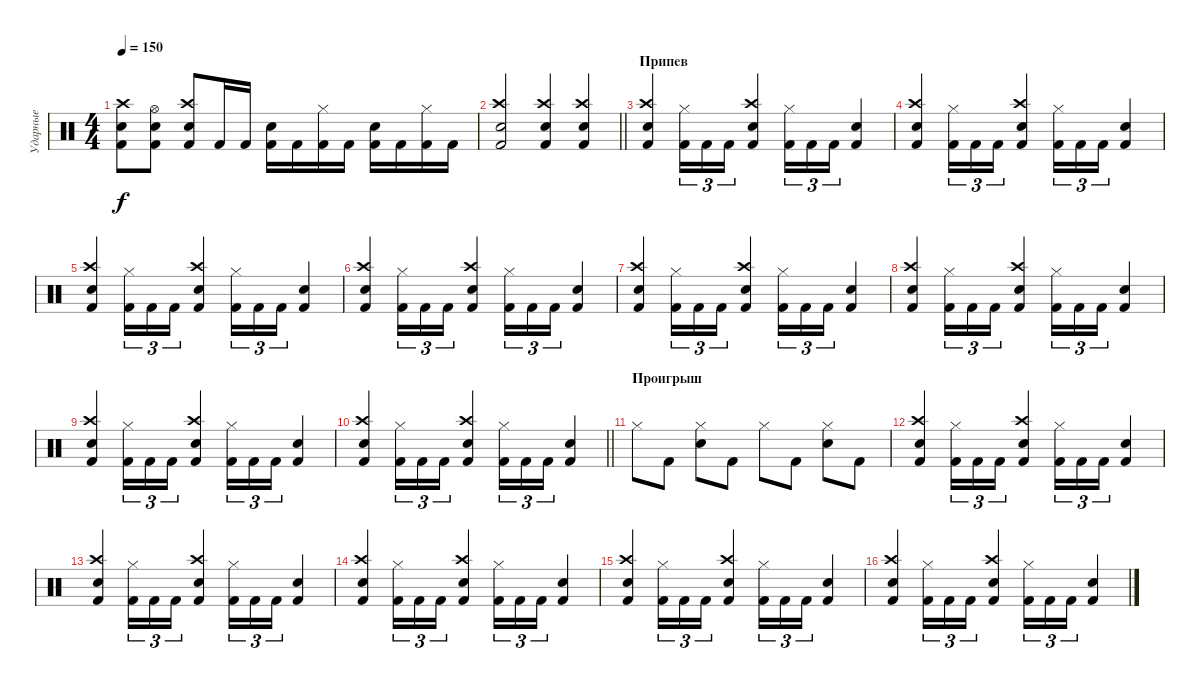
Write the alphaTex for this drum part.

\track ("Ударные" "Ударные") {instrument percussion}
\staff {score}
\articulation defaults
\ts (4 4)
\tempo 150
\clef neutral
\ks c
("Snare (hit) 2" "Crash high (hit)" "Kick (hit) 2").8{dy f} ("Hi-Hat (open)" "Snare (hit) 2" "Kick (hit) 2").8 ("Kick (hit) 2" "Snare (hit) 2" "Crash high (hit)").8 "Kick (hit) 2".16 "Kick (hit) 2".16 ("Snare (hit) 2" "Kick (hit) 2").16 "Kick (hit) 2".16 ("Hi-Hat (closed)" "Kick (hit) 2").16 "Kick (hit) 2".16 ("Snare (hit) 2" "Kick (hit) 2").16 "Kick (hit) 2".16 ("Hi-Hat (closed)" "Kick (hit) 2").16 "Kick (hit) 2".16 |
\barLineRight lightlight
("Crash high (hit)" "Snare (hit) 2" "Kick (hit) 2").2 ("Crash high (hit)" "Snare (hit) 2" "Kick (hit) 2").4 ("Kick (hit) 2" "Snare (hit) 2" "Crash high (hit)").4 |
\section ("" "Припев")
("Kick (hit) 2" "Crash high (hit)" "Snare (hit) 2").4 ("Hi-Hat (closed)" "Kick (hit) 2").16{tu (3 2)} "Kick (hit) 2".16{tu (3 2)} "Kick (hit) 2".16{tu (3 2)} ("Crash high (hit)" "Snare (hit) 2" "Kick (hit) 2").4 ("Hi-Hat (closed)" "Kick (hit) 2").16{tu (3 2)} "Kick (hit) 2".16{tu (3 2)} "Kick (hit) 2".16{tu (3 2)} ("Snare (hit) 2" "Kick (hit) 2").4 |
("Kick (hit) 2" "Crash high (hit)" "Snare (hit) 2").4 ("Hi-Hat (closed)" "Kick (hit) 2").16{tu (3 2)} "Kick (hit) 2".16{tu (3 2)} "Kick (hit) 2".16{tu (3 2)} ("Crash high (hit)" "Snare (hit) 2" "Kick (hit) 2").4 ("Hi-Hat (closed)" "Kick (hit) 2").16{tu (3 2)} "Kick (hit) 2".16{tu (3 2)} "Kick (hit) 2".16{tu (3 2)} ("Snare (hit) 2" "Kick (hit) 2").4 |
("Kick (hit) 2" "Crash high (hit)" "Snare (hit) 2").4 ("Hi-Hat (closed)" "Kick (hit) 2").16{tu (3 2)} "Kick (hit) 2".16{tu (3 2)} "Kick (hit) 2".16{tu (3 2)} ("Crash high (hit)" "Snare (hit) 2" "Kick (hit) 2").4 ("Hi-Hat (closed)" "Kick (hit) 2").16{tu (3 2)} "Kick (hit) 2".16{tu (3 2)} "Kick (hit) 2".16{tu (3 2)} ("Snare (hit) 2" "Kick (hit) 2").4 |
("Kick (hit) 2" "Crash high (hit)" "Snare (hit) 2").4 ("Hi-Hat (closed)" "Kick (hit) 2").16{tu (3 2)} "Kick (hit) 2".16{tu (3 2)} "Kick (hit) 2".16{tu (3 2)} ("Crash high (hit)" "Snare (hit) 2" "Kick (hit) 2").4 ("Hi-Hat (closed)" "Kick (hit) 2").16{tu (3 2)} "Kick (hit) 2".16{tu (3 2)} "Kick (hit) 2".16{tu (3 2)} ("Snare (hit) 2" "Kick (hit) 2").4 |
("Kick (hit) 2" "Crash high (hit)" "Snare (hit) 2").4 ("Hi-Hat (closed)" "Kick (hit) 2").16{tu (3 2)} "Kick (hit) 2".16{tu (3 2)} "Kick (hit) 2".16{tu (3 2)} ("Crash high (hit)" "Snare (hit) 2" "Kick (hit) 2").4 ("Hi-Hat (closed)" "Kick (hit) 2").16{tu (3 2)} "Kick (hit) 2".16{tu (3 2)} "Kick (hit) 2".16{tu (3 2)} ("Snare (hit) 2" "Kick (hit) 2").4 |
("Kick (hit) 2" "Crash high (hit)" "Snare (hit) 2").4 ("Hi-Hat (closed)" "Kick (hit) 2").16{tu (3 2)} "Kick (hit) 2".16{tu (3 2)} "Kick (hit) 2".16{tu (3 2)} ("Crash high (hit)" "Snare (hit) 2" "Kick (hit) 2").4 ("Hi-Hat (closed)" "Kick (hit) 2").16{tu (3 2)} "Kick (hit) 2".16{tu (3 2)} "Kick (hit) 2".16{tu (3 2)} ("Snare (hit) 2" "Kick (hit) 2").4 |
("Kick (hit) 2" "Crash high (hit)" "Snare (hit) 2").4 ("Hi-Hat (closed)" "Kick (hit) 2").16{tu (3 2)} "Kick (hit) 2".16{tu (3 2)} "Kick (hit) 2".16{tu (3 2)} ("Crash high (hit)" "Snare (hit) 2" "Kick (hit) 2").4 ("Hi-Hat (closed)" "Kick (hit) 2").16{tu (3 2)} "Kick (hit) 2".16{tu (3 2)} "Kick (hit) 2".16{tu (3 2)} ("Snare (hit) 2" "Kick (hit) 2").4 |
\barLineRight lightlight
("Kick (hit) 2" "Crash high (hit)" "Snare (hit) 2").4 ("Hi-Hat (closed)" "Kick (hit) 2").16{tu (3 2)} "Kick (hit) 2".16{tu (3 2)} "Kick (hit) 2".16{tu (3 2)} ("Crash high (hit)" "Snare (hit) 2" "Kick (hit) 2").4 ("Hi-Hat (closed)" "Kick (hit) 2").16{tu (3 2)} "Kick (hit) 2".16{tu (3 2)} "Kick (hit) 2".16{tu (3 2)} ("Snare (hit) 2" "Kick (hit) 2").4 |
\section ("" "Проигрыш")
"Hi-Hat (closed)".8 "Kick (hit) 2".8 ("Hi-Hat (closed)" "Snare (hit) 2").8 "Kick (hit) 2".8 "Hi-Hat (closed)".8 "Kick (hit) 2".8 ("Hi-Hat (closed)" "Snare (hit) 2").8 "Kick (hit) 2".8 |
("Kick (hit) 2" "Crash high (hit)" "Snare (hit) 2").4 ("Hi-Hat (closed)" "Kick (hit) 2").16{tu (3 2)} "Kick (hit) 2".16{tu (3 2)} "Kick (hit) 2".16{tu (3 2)} ("Crash high (hit)" "Snare (hit) 2" "Kick (hit) 2").4 ("Hi-Hat (closed)" "Kick (hit) 2").16{tu (3 2)} "Kick (hit) 2".16{tu (3 2)} "Kick (hit) 2".16{tu (3 2)} ("Snare (hit) 2" "Kick (hit) 2").4 |
("Kick (hit) 2" "Crash high (hit)" "Snare (hit) 2").4 ("Hi-Hat (closed)" "Kick (hit) 2").16{tu (3 2)} "Kick (hit) 2".16{tu (3 2)} "Kick (hit) 2".16{tu (3 2)} ("Crash high (hit)" "Snare (hit) 2" "Kick (hit) 2").4 ("Hi-Hat (closed)" "Kick (hit) 2").16{tu (3 2)} "Kick (hit) 2".16{tu (3 2)} "Kick (hit) 2".16{tu (3 2)} ("Snare (hit) 2" "Kick (hit) 2").4 |
("Kick (hit) 2" "Crash high (hit)" "Snare (hit) 2").4 ("Hi-Hat (closed)" "Kick (hit) 2").16{tu (3 2)} "Kick (hit) 2".16{tu (3 2)} "Kick (hit) 2".16{tu (3 2)} ("Crash high (hit)" "Snare (hit) 2" "Kick (hit) 2").4 ("Hi-Hat (closed)" "Kick (hit) 2").16{tu (3 2)} "Kick (hit) 2".16{tu (3 2)} "Kick (hit) 2".16{tu (3 2)} ("Snare (hit) 2" "Kick (hit) 2").4 |
("Kick (hit) 2" "Crash high (hit)" "Snare (hit) 2").4 ("Hi-Hat (closed)" "Kick (hit) 2").16{tu (3 2)} "Kick (hit) 2".16{tu (3 2)} "Kick (hit) 2".16{tu (3 2)} ("Crash high (hit)" "Snare (hit) 2" "Kick (hit) 2").4 ("Hi-Hat (closed)" "Kick (hit) 2").16{tu (3 2)} "Kick (hit) 2".16{tu (3 2)} "Kick (hit) 2".16{tu (3 2)} ("Snare (hit) 2" "Kick (hit) 2").4 |
("Kick (hit) 2" "Crash high (hit)" "Snare (hit) 2").4 ("Hi-Hat (closed)" "Kick (hit) 2").16{tu (3 2)} "Kick (hit) 2".16{tu (3 2)} "Kick (hit) 2".16{tu (3 2)} ("Crash high (hit)" "Snare (hit) 2" "Kick (hit) 2").4 ("Hi-Hat (closed)" "Kick (hit) 2").16{tu (3 2)} "Kick (hit) 2".16{tu (3 2)} "Kick (hit) 2".16{tu (3 2)} ("Snare (hit) 2" "Kick (hit) 2").4
